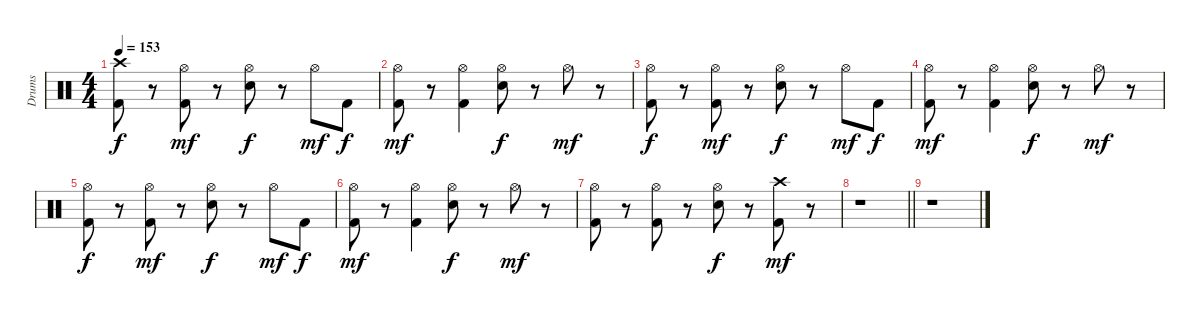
\track ("Drums" "Drums") {instrument percussion}
\staff {score}
\articulation defaults
\ts (4 4)
\tempo 153
\clef neutral
\ks c
("Crash high (hit)" "Kick (hit) 2").8{dy f} r.8 ("Hi-Hat (open)" "Kick (hit) 2").8{dy mf} r.8 ("Hi-Hat (open)" "Electric Snare (hit)").8{dy f} r.8 "Hi-Hat (open)".8{dy mf} "Kick (hit) 2".8{dy f} |
("Hi-Hat (open)" "Kick (hit) 2").8{dy mf} r.8 ("Hi-Hat (open)" "Kick (hit) 2").4 ("Hi-Hat (open)" "Electric Snare (hit)").8{dy f} r.8 "Hi-Hat (open)".8{dy mf} r.8 |
("Hi-Hat (open)" "Kick (hit) 2").8{dy f} r.8 ("Hi-Hat (open)" "Kick (hit) 2").8{dy mf} r.8 ("Hi-Hat (open)" "Electric Snare (hit)").8{dy f} r.8 "Hi-Hat (open)".8{dy mf} "Kick (hit) 2".8{dy f} |
("Hi-Hat (open)" "Kick (hit) 2").8{dy mf} r.8 ("Hi-Hat (open)" "Kick (hit) 2").4 ("Hi-Hat (open)" "Electric Snare (hit)").8{dy f} r.8 "Hi-Hat (open)".8{dy mf} r.8 |
("Hi-Hat (open)" "Kick (hit) 2").8{dy f} r.8 ("Hi-Hat (open)" "Kick (hit) 2").8{dy mf} r.8 ("Hi-Hat (open)" "Electric Snare (hit)").8{dy f} r.8 "Hi-Hat (open)".8{dy mf} "Kick (hit) 2".8{dy f} |
("Hi-Hat (open)" "Kick (hit) 2").8{dy mf} r.8 ("Hi-Hat (open)" "Kick (hit) 2").4 ("Hi-Hat (open)" "Electric Snare (hit)").8{dy f} r.8 "Hi-Hat (open)".8{dy mf} r.8 |
("Hi-Hat (open)" "Kick (hit) 2").8 r.8 ("Hi-Hat (open)" "Kick (hit) 2").8 r.8 ("Hi-Hat (open)" "Electric Snare (hit)").8{dy f} r.8 ("Crash high (hit)" "Kick (hit) 2").8{dy mf} r.8 |
\barLineRight lightlight
r.1 |
r.1
